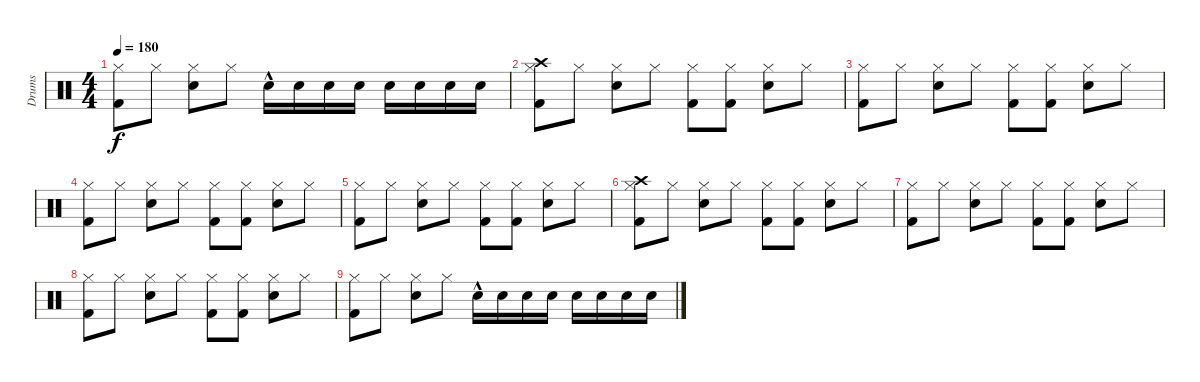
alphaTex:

\track ("Drums" "Drums") {instrument percussion}
\staff {score}
\articulation defaults
\ts (4 4)
\tempo 180
\clef neutral
\ks c
("Hi-Hat (closed)" "Kick (hit) 2").8{dy f} "Hi-Hat (closed)".8 ("Hi-Hat (closed)" "Snare (hit) 2").8 "Hi-Hat (closed)".8 "Snare (hit) 2"{hac}.16 "Snare (hit) 2".16 "Snare (hit) 2".16 "Snare (hit) 2".16 "Snare (hit) 2".16 "Snare (hit) 2".16 "Snare (hit) 2".16 "Snare (hit) 2".16 |
("Crash high (hit)" "Hi-Hat (closed)" "Kick (hit) 2").8 "Hi-Hat (closed)".8 ("Hi-Hat (closed)" "Snare (hit) 2").8 "Hi-Hat (closed)".8 ("Hi-Hat (closed)" "Kick (hit) 2").8 ("Hi-Hat (closed)" "Kick (hit) 2").8 ("Hi-Hat (closed)" "Snare (hit) 2").8 "Hi-Hat (closed)".8 |
("Hi-Hat (closed)" "Kick (hit) 2").8 "Hi-Hat (closed)".8 ("Hi-Hat (closed)" "Snare (hit) 2").8 "Hi-Hat (closed)".8 ("Hi-Hat (closed)" "Kick (hit) 2").8 ("Hi-Hat (closed)" "Kick (hit) 2").8 ("Hi-Hat (closed)" "Snare (hit) 2").8 "Hi-Hat (closed)".8 |
("Hi-Hat (closed)" "Kick (hit) 2").8 "Hi-Hat (closed)".8 ("Hi-Hat (closed)" "Snare (hit) 2").8 "Hi-Hat (closed)".8 ("Hi-Hat (closed)" "Kick (hit) 2").8 ("Hi-Hat (closed)" "Kick (hit) 2").8 ("Hi-Hat (closed)" "Snare (hit) 2").8 "Hi-Hat (closed)".8 |
("Hi-Hat (closed)" "Kick (hit) 2").8 "Hi-Hat (closed)".8 ("Hi-Hat (closed)" "Snare (hit) 2").8 "Hi-Hat (closed)".8 ("Hi-Hat (closed)" "Kick (hit) 2").8 ("Hi-Hat (closed)" "Kick (hit) 2").8 ("Hi-Hat (closed)" "Snare (hit) 2").8 "Hi-Hat (closed)".8 |
("Crash high (hit)" "Hi-Hat (closed)" "Kick (hit) 2").8 "Hi-Hat (closed)".8 ("Hi-Hat (closed)" "Snare (hit) 2").8 "Hi-Hat (closed)".8 ("Hi-Hat (closed)" "Kick (hit) 2").8 ("Hi-Hat (closed)" "Kick (hit) 2").8 ("Hi-Hat (closed)" "Snare (hit) 2").8 "Hi-Hat (closed)".8 |
("Hi-Hat (closed)" "Kick (hit) 2").8 "Hi-Hat (closed)".8 ("Hi-Hat (closed)" "Snare (hit) 2").8 "Hi-Hat (closed)".8 ("Hi-Hat (closed)" "Kick (hit) 2").8 ("Hi-Hat (closed)" "Kick (hit) 2").8 ("Hi-Hat (closed)" "Snare (hit) 2").8 "Hi-Hat (closed)".8 |
("Hi-Hat (closed)" "Kick (hit) 2").8 "Hi-Hat (closed)".8 ("Hi-Hat (closed)" "Snare (hit) 2").8 "Hi-Hat (closed)".8 ("Hi-Hat (closed)" "Kick (hit) 2").8 ("Hi-Hat (closed)" "Kick (hit) 2").8 ("Hi-Hat (closed)" "Snare (hit) 2").8 "Hi-Hat (closed)".8 |
("Hi-Hat (closed)" "Kick (hit) 2").8 "Hi-Hat (closed)".8 ("Hi-Hat (closed)" "Snare (hit) 2").8 "Hi-Hat (closed)".8 "Snare (hit) 2"{hac}.16 "Snare (hit) 2".16 "Snare (hit) 2".16 "Snare (hit) 2".16 "Snare (hit) 2".16 "Snare (hit) 2".16 "Snare (hit) 2".16 "Snare (hit) 2".16
